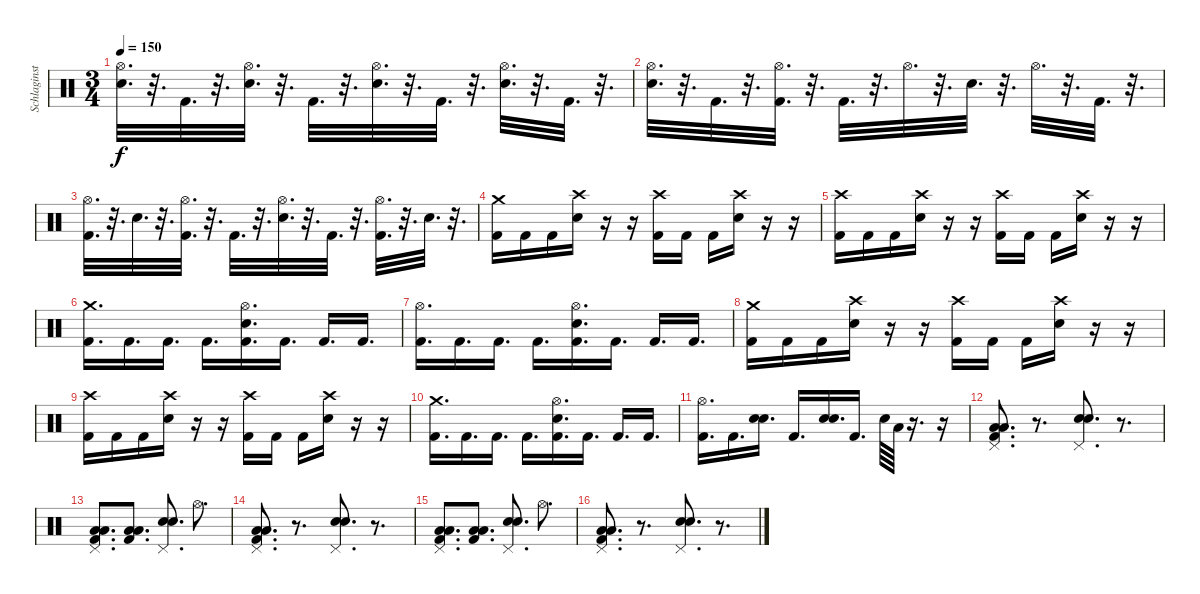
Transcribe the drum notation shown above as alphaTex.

\track ("Schlaginstrumente - Auswahl" "Schlaginst") {instrument percussion}
\staff {score}
\articulation defaults
\ts (3 4)
\tempo 150
\clef neutral
\ks c
("Hi-Hat (open)" "Snare (hit) 2").32{d dy f} r.32{d} "Kick (hit) 2".32{d} r.32{d} ("Hi-Hat (open)" "Snare (hit) 2").32{d} r.32{d} "Kick (hit) 2".32{d} r.32{d} ("Hi-Hat (open)" "Snare (hit) 2").32{d} r.32{d} "Kick (hit) 2".32{d} r.32{d} ("Hi-Hat (open)" "Snare (hit) 2").32{d} r.32{d} "Kick (hit) 2".32{d} r.32{d} |
("Hi-Hat (open)" "Snare (hit) 2").32{d} r.32{d} "Kick (hit) 2".32{d} r.32{d} ("Hi-Hat (open)" "Kick (hit) 2").32{d} r.32{d} "Kick (hit) 2".32{d} r.32{d} "Hi-Hat (open)".32{d} r.32{d} "Snare (hit) 2".32{d} r.32{d} "Hi-Hat (open)".32{d} r.32{d} "Kick (hit) 2".32{d} r.32{d} |
("Hi-Hat (open)" "Kick (hit) 2").32{d} r.32{d} "Snare (hit) 2".32{d} r.32{d} ("Hi-Hat (open)" "Kick (hit) 2").32{d} r.32{d} "Kick (hit) 2".32{d} r.32{d} ("Hi-Hat (open)" "Snare (hit) 2").32{d} r.32{d} "Kick (hit) 2".32{d} r.32{d} ("Hi-Hat (open)" "Kick (hit) 2").32{d} r.32{d} "Snare (hit) 2".32{d} r.32{d} |
("Crash medium (hit)" "Kick (hit) 2").16 "Kick (hit) 2".16 "Kick (hit) 2".16 ("Crash high (hit)" "Snare (hit) 2").16 r.16 r.16 ("Crash high (hit)" "Kick (hit) 2").16 "Kick (hit) 2".16 "Kick (hit) 2".16 ("Crash high (hit)" "Snare (hit) 2").16 r.16 r.16 |
("Crash high (hit)" "Kick (hit) 2").16 "Kick (hit) 2".16 "Kick (hit) 2".16 ("Crash high (hit)" "Snare (hit) 2").16 r.16 r.16 ("Crash high (hit)" "Kick (hit) 2").16 "Kick (hit) 2".16 "Kick (hit) 2".16 ("Crash high (hit)" "Snare (hit) 2").16 r.16 r.16 |
("Crash medium (hit)" "Kick (hit) 2").16{d} "Kick (hit) 2".16{d} "Kick (hit) 2".16{d} "Kick (hit) 2".16{d} ("Hi-Hat (open)" "Snare (hit) 2" "Kick (hit) 2").16{d} "Kick (hit) 2".16{d} "Kick (hit) 2".16{d} "Kick (hit) 2".16{d} |
("Hi-Hat (open)" "Kick (hit) 2").16{d} "Kick (hit) 2".16{d} "Kick (hit) 2".16{d} "Kick (hit) 2".16{d} ("Hi-Hat (open)" "Snare (hit) 2" "Kick (hit) 2").16{d} "Kick (hit) 2".16{d} "Kick (hit) 2".16{d} "Kick (hit) 2".16{d} |
("Crash medium (hit)" "Kick (hit) 2").16 "Kick (hit) 2".16 "Kick (hit) 2".16 ("Crash high (hit)" "Snare (hit) 2").16 r.16 r.16 ("Crash high (hit)" "Kick (hit) 2").16 "Kick (hit) 2".16 "Kick (hit) 2".16 ("Crash high (hit)" "Snare (hit) 2").16 r.16 r.16 |
("Crash high (hit)" "Kick (hit) 2").16 "Kick (hit) 2".16 "Kick (hit) 2".16 ("Crash high (hit)" "Snare (hit) 2").16 r.16 r.16 ("Crash high (hit)" "Kick (hit) 2").16 "Kick (hit) 2".16 "Kick (hit) 2".16 ("Crash high (hit)" "Snare (hit) 2").16 r.16 r.16 |
("Crash medium (hit)" "Kick (hit) 2").16{d} "Kick (hit) 2".16{d} "Kick (hit) 2".16{d} "Kick (hit) 2".16{d} ("Hi-Hat (open)" "Snare (hit) 2" "Kick (hit) 2").16{d} "Kick (hit) 2".16{d} "Kick (hit) 2".16{d} "Kick (hit) 2".16{d} |
("Hi-Hat (open)" "Kick (hit) 2").16{d} "Kick (hit) 2".16{d} ("Snare (hit) 2" "Snare (hit) 2").16{d} "Kick (hit) 2".16{d} ("Snare (hit) 2" "Snare (hit) 2").16{d} "Kick (hit) 2".16{d} "Snare (hit) 2".64 "Low Tom (hit)".64 r.16{d} r.16 |
("Pedal Hi-Hat (hit)" "Low Tom (hit)" "Low Tom (hit)" "Kick (hit) 2").8{d} r.8{d} ("Pedal Hi-Hat (hit)" "Snare (hit) 2" "Snare (hit) 2").8{d} r.8{d} |
("Pedal Hi-Hat (hit)" "Low Tom (hit)" "Low Tom (hit)" "Kick (hit) 2").8{d} ("Low Tom (hit)" "Low Tom (hit)" "Kick (hit) 2").8{d} ("Pedal Hi-Hat (hit)" "Snare (hit) 2" "Snare (hit) 2").8{d} "Hi-Hat (open)".8{d} |
("Pedal Hi-Hat (hit)" "Low Tom (hit)" "Low Tom (hit)" "Kick (hit) 2").8{d} r.8{d} ("Pedal Hi-Hat (hit)" "Snare (hit) 2" "Snare (hit) 2").8{d} r.8{d} |
("Pedal Hi-Hat (hit)" "Low Tom (hit)" "Low Tom (hit)" "Kick (hit) 2").8{d} ("Low Tom (hit)" "Low Tom (hit)" "Kick (hit) 2").8{d} ("Pedal Hi-Hat (hit)" "Snare (hit) 2" "Snare (hit) 2").8{d} "Hi-Hat (open)".8{d} |
("Pedal Hi-Hat (hit)" "Low Tom (hit)" "Low Tom (hit)" "Kick (hit) 2").8{d} r.8{d} ("Pedal Hi-Hat (hit)" "Snare (hit) 2" "Snare (hit) 2").8{d} r.8{d}
